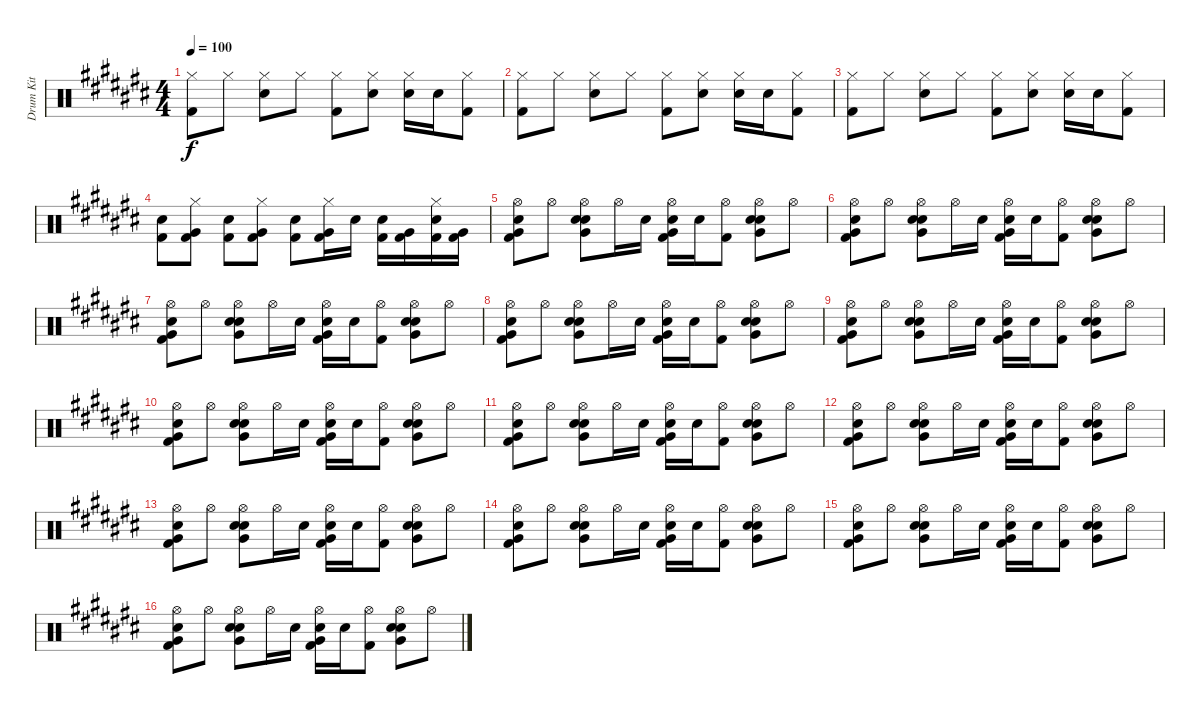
\track ("Drum Kit" "Drum Kit") {instrument percussion}
\staff {score}
\articulation defaults
\ts (4 4)
\tempo 100
\clef neutral
\ks c#
("Hi-Hat (closed)" "Kick (hit) 2").8{dy f} "Hi-Hat (closed)".8 ("Hi-Hat (closed)" "Snare (hit) 2").8 "Hi-Hat (closed)".8 ("Hi-Hat (closed)" "Kick (hit) 2").8 ("Hi-Hat (closed)" "Snare (hit) 2").8 ("Hi-Hat (closed)" "Snare (hit) 2").16 "Snare (hit) 2".16 ("Hi-Hat (closed)" "Kick (hit) 2").8 |
("Hi-Hat (closed)" "Kick (hit) 2").8 "Hi-Hat (closed)".8 ("Hi-Hat (closed)" "Snare (hit) 2").8 "Hi-Hat (closed)".8 ("Hi-Hat (closed)" "Kick (hit) 2").8 ("Hi-Hat (closed)" "Snare (hit) 2").8 ("Hi-Hat (closed)" "Snare (hit) 2").16 "Snare (hit) 2".16 ("Hi-Hat (closed)" "Kick (hit) 2").8 |
("Hi-Hat (closed)" "Kick (hit) 2").8 "Hi-Hat (closed)".8 ("Hi-Hat (closed)" "Snare (hit) 2").8 "Hi-Hat (closed)".8 ("Hi-Hat (closed)" "Kick (hit) 2").8 ("Hi-Hat (closed)" "Snare (hit) 2").8 ("Hi-Hat (closed)" "Snare (hit) 2").16 "Snare (hit) 2".16 ("Hi-Hat (closed)" "Kick (hit) 2").8 |
("Snare (hit) 2" "Kick (hit) 2").8 ("Hi-Hat (closed)" "Very Low Tom (hit)" "Kick (hit) 2").8 ("Snare (hit) 2" "Kick (hit) 2").8 ("Hi-Hat (closed)" "Very Low Tom (hit)" "Kick (hit) 2").8 ("Snare (hit) 2" "Kick (hit) 2").8 ("Hi-Hat (closed)" "Very Low Tom (hit)" "Kick (hit) 2").16 "Snare (hit) 2".16 ("Snare (hit) 2" "Kick (hit) 2").16 ("Very Low Tom (hit)" "Kick (hit) 2").16 ("Hi-Hat (closed)" "Snare (hit) 2" "Kick (hit) 2").16 ("Very Low Tom (hit)" "Kick (hit) 2").16 |
("Hi-Hat (open)" "Electric Snare (hit)" "Very Low Tom (hit)" "Kick (hit) 2").8 "Hi-Hat (open)".8 ("Hi-Hat (open)" "Electric Snare (hit)" "Very Low Tom (hit)" "Snare (hit) 2").8 "Hi-Hat (open)".16 "Snare (hit) 2".16 ("Hi-Hat (open)" "Electric Snare (hit)" "Very Low Tom (hit)" "Kick (hit) 2").16 "Snare (hit) 2".16 ("Hi-Hat (open)" "Kick (hit) 2").8 ("Hi-Hat (open)" "Electric Snare (hit)" "Very Low Tom (hit)" "Snare (hit) 2").8 "Hi-Hat (open)".8 |
("Hi-Hat (open)" "Electric Snare (hit)" "Very Low Tom (hit)" "Kick (hit) 2").8 "Hi-Hat (open)".8 ("Hi-Hat (open)" "Electric Snare (hit)" "Very Low Tom (hit)" "Snare (hit) 2").8 "Hi-Hat (open)".16 "Snare (hit) 2".16 ("Hi-Hat (open)" "Electric Snare (hit)" "Very Low Tom (hit)" "Kick (hit) 2").16 "Snare (hit) 2".16 ("Hi-Hat (open)" "Kick (hit) 2").8 ("Hi-Hat (open)" "Electric Snare (hit)" "Very Low Tom (hit)" "Snare (hit) 2").8 "Hi-Hat (open)".8 |
("Hi-Hat (open)" "Electric Snare (hit)" "Very Low Tom (hit)" "Kick (hit) 2").8 "Hi-Hat (open)".8 ("Hi-Hat (open)" "Electric Snare (hit)" "Very Low Tom (hit)" "Snare (hit) 2").8 "Hi-Hat (open)".16 "Snare (hit) 2".16 ("Hi-Hat (open)" "Electric Snare (hit)" "Very Low Tom (hit)" "Kick (hit) 2").16 "Snare (hit) 2".16 ("Hi-Hat (open)" "Kick (hit) 2").8 ("Hi-Hat (open)" "Electric Snare (hit)" "Very Low Tom (hit)" "Snare (hit) 2").8 "Hi-Hat (open)".8 |
("Hi-Hat (open)" "Electric Snare (hit)" "Very Low Tom (hit)" "Kick (hit) 2").8 "Hi-Hat (open)".8 ("Hi-Hat (open)" "Electric Snare (hit)" "Very Low Tom (hit)" "Snare (hit) 2").8 "Hi-Hat (open)".16 "Snare (hit) 2".16 ("Hi-Hat (open)" "Electric Snare (hit)" "Very Low Tom (hit)" "Kick (hit) 2").16 "Snare (hit) 2".16 ("Hi-Hat (open)" "Kick (hit) 2").8 ("Hi-Hat (open)" "Electric Snare (hit)" "Very Low Tom (hit)" "Snare (hit) 2").8 "Hi-Hat (open)".8 |
("Hi-Hat (open)" "Electric Snare (hit)" "Very Low Tom (hit)" "Kick (hit) 2").8 "Hi-Hat (open)".8 ("Hi-Hat (open)" "Electric Snare (hit)" "Very Low Tom (hit)" "Snare (hit) 2").8 "Hi-Hat (open)".16 "Snare (hit) 2".16 ("Hi-Hat (open)" "Electric Snare (hit)" "Very Low Tom (hit)" "Kick (hit) 2").16 "Snare (hit) 2".16 ("Hi-Hat (open)" "Kick (hit) 2").8 ("Hi-Hat (open)" "Electric Snare (hit)" "Very Low Tom (hit)" "Snare (hit) 2").8 "Hi-Hat (open)".8 |
("Hi-Hat (open)" "Electric Snare (hit)" "Very Low Tom (hit)" "Kick (hit) 2").8 "Hi-Hat (open)".8 ("Hi-Hat (open)" "Electric Snare (hit)" "Very Low Tom (hit)" "Snare (hit) 2").8 "Hi-Hat (open)".16 "Snare (hit) 2".16 ("Hi-Hat (open)" "Electric Snare (hit)" "Very Low Tom (hit)" "Kick (hit) 2").16 "Snare (hit) 2".16 ("Hi-Hat (open)" "Kick (hit) 2").8 ("Hi-Hat (open)" "Electric Snare (hit)" "Very Low Tom (hit)" "Snare (hit) 2").8 "Hi-Hat (open)".8 |
("Hi-Hat (open)" "Electric Snare (hit)" "Very Low Tom (hit)" "Kick (hit) 2").8 "Hi-Hat (open)".8 ("Hi-Hat (open)" "Electric Snare (hit)" "Very Low Tom (hit)" "Snare (hit) 2").8 "Hi-Hat (open)".16 "Snare (hit) 2".16 ("Hi-Hat (open)" "Electric Snare (hit)" "Very Low Tom (hit)" "Kick (hit) 2").16 "Snare (hit) 2".16 ("Hi-Hat (open)" "Kick (hit) 2").8 ("Hi-Hat (open)" "Electric Snare (hit)" "Very Low Tom (hit)" "Snare (hit) 2").8 "Hi-Hat (open)".8 |
("Hi-Hat (open)" "Electric Snare (hit)" "Very Low Tom (hit)" "Kick (hit) 2").8 "Hi-Hat (open)".8 ("Hi-Hat (open)" "Electric Snare (hit)" "Very Low Tom (hit)" "Snare (hit) 2").8 "Hi-Hat (open)".16 "Snare (hit) 2".16 ("Hi-Hat (open)" "Electric Snare (hit)" "Very Low Tom (hit)" "Kick (hit) 2").16 "Snare (hit) 2".16 ("Hi-Hat (open)" "Kick (hit) 2").8 ("Hi-Hat (open)" "Electric Snare (hit)" "Very Low Tom (hit)" "Snare (hit) 2").8 "Hi-Hat (open)".8 |
("Hi-Hat (open)" "Electric Snare (hit)" "Very Low Tom (hit)" "Kick (hit) 2").8 "Hi-Hat (open)".8 ("Hi-Hat (open)" "Electric Snare (hit)" "Very Low Tom (hit)" "Snare (hit) 2").8 "Hi-Hat (open)".16 "Snare (hit) 2".16 ("Hi-Hat (open)" "Electric Snare (hit)" "Very Low Tom (hit)" "Kick (hit) 2").16 "Snare (hit) 2".16 ("Hi-Hat (open)" "Kick (hit) 2").8 ("Hi-Hat (open)" "Electric Snare (hit)" "Very Low Tom (hit)" "Snare (hit) 2").8 "Hi-Hat (open)".8 |
("Hi-Hat (open)" "Electric Snare (hit)" "Very Low Tom (hit)" "Kick (hit) 2").8 "Hi-Hat (open)".8 ("Hi-Hat (open)" "Electric Snare (hit)" "Very Low Tom (hit)" "Snare (hit) 2").8 "Hi-Hat (open)".16 "Snare (hit) 2".16 ("Hi-Hat (open)" "Electric Snare (hit)" "Very Low Tom (hit)" "Kick (hit) 2").16 "Snare (hit) 2".16 ("Hi-Hat (open)" "Kick (hit) 2").8 ("Hi-Hat (open)" "Electric Snare (hit)" "Very Low Tom (hit)" "Snare (hit) 2").8 "Hi-Hat (open)".8 |
("Hi-Hat (open)" "Electric Snare (hit)" "Very Low Tom (hit)" "Kick (hit) 2").8 "Hi-Hat (open)".8 ("Hi-Hat (open)" "Electric Snare (hit)" "Very Low Tom (hit)" "Snare (hit) 2").8 "Hi-Hat (open)".16 "Snare (hit) 2".16 ("Hi-Hat (open)" "Electric Snare (hit)" "Very Low Tom (hit)" "Kick (hit) 2").16 "Snare (hit) 2".16 ("Hi-Hat (open)" "Kick (hit) 2").8 ("Hi-Hat (open)" "Electric Snare (hit)" "Very Low Tom (hit)" "Snare (hit) 2").8 "Hi-Hat (open)".8 |
("Hi-Hat (open)" "Electric Snare (hit)" "Very Low Tom (hit)" "Kick (hit) 2").8 "Hi-Hat (open)".8 ("Hi-Hat (open)" "Electric Snare (hit)" "Very Low Tom (hit)" "Snare (hit) 2").8 "Hi-Hat (open)".16 "Snare (hit) 2".16 ("Hi-Hat (open)" "Electric Snare (hit)" "Very Low Tom (hit)" "Kick (hit) 2").16 "Snare (hit) 2".16 ("Hi-Hat (open)" "Kick (hit) 2").8 ("Hi-Hat (open)" "Electric Snare (hit)" "Very Low Tom (hit)" "Snare (hit) 2").8 "Hi-Hat (open)".8
